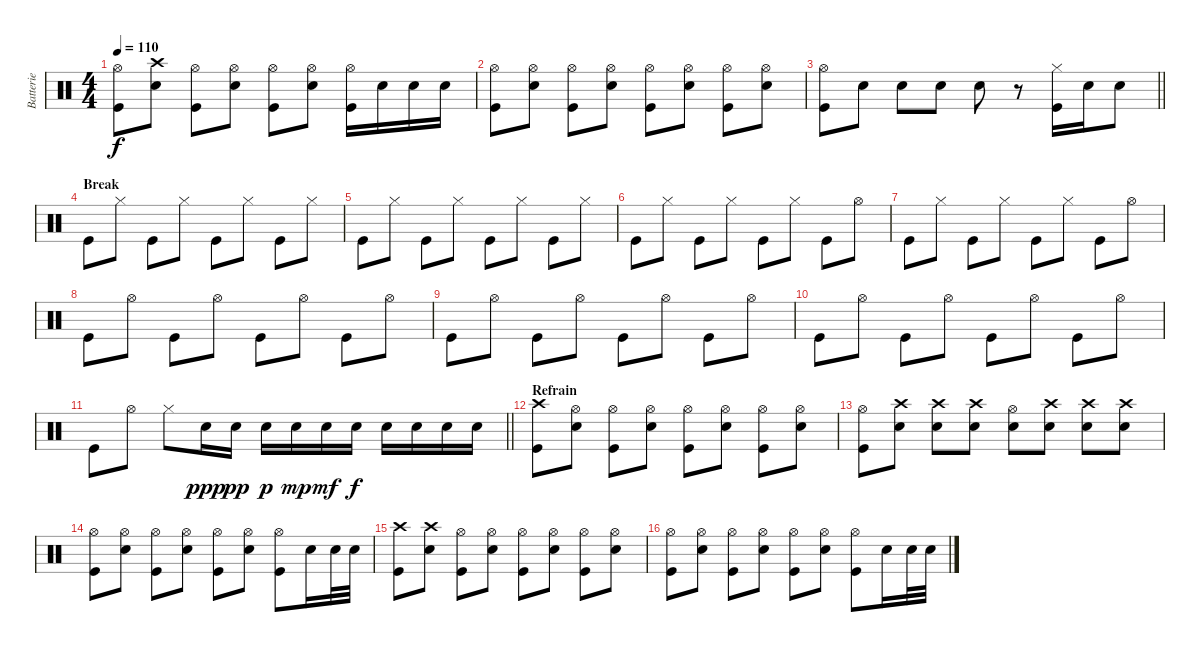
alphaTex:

\track ("Batterie" "Batterie") {instrument percussion}
\staff {score}
\articulation defaults
\ts (4 4)
\tempo 110
\clef neutral
\ks c
("Kick (hit)" "Hi-Hat (open)").8{dy f} ("Snare (hit) 2" "Crash high (hit)").8 ("Kick (hit)" "Hi-Hat (open)").8 ("Snare (hit) 2" "Hi-Hat (open)").8 ("Kick (hit)" "Hi-Hat (open)").8 ("Snare (hit) 2" "Hi-Hat (open)").8 ("Kick (hit)" "Hi-Hat (open)").16 "Snare (hit) 2".16 "Snare (hit) 2".16 "Snare (hit) 2".16 |
("Kick (hit)" "Hi-Hat (open)").8 ("Snare (hit) 2" "Hi-Hat (open)").8 ("Kick (hit)" "Hi-Hat (open)").8 ("Snare (hit) 2" "Hi-Hat (open)").8 ("Kick (hit)" "Hi-Hat (open)").8 ("Snare (hit) 2" "Hi-Hat (open)").8 ("Kick (hit)" "Hi-Hat (open)").8 ("Snare (hit) 2" "Hi-Hat (open)").8 |
\barLineRight lightlight
("Kick (hit)" "Hi-Hat (open)").8 "Snare (hit) 2".8 "Snare (hit) 2".8 "Snare (hit) 2".8 "Snare (hit) 2".8 r.8 ("Kick (hit)" "Hi-Hat (closed)").16 "Snare (hit) 2".16 "Snare (hit) 2".8 |
\section ("" "Break")
"Kick (hit)".8 "Hi-Hat (closed)".8 "Kick (hit)".8 "Hi-Hat (closed)".8 "Kick (hit)".8 "Hi-Hat (closed)".8 "Kick (hit)".8 "Hi-Hat (closed)".8 |
"Kick (hit)".8 "Hi-Hat (closed)".8 "Kick (hit)".8 "Hi-Hat (closed)".8 "Kick (hit)".8 "Hi-Hat (closed)".8 "Kick (hit)".8 "Hi-Hat (closed)".8 |
"Kick (hit)".8 "Hi-Hat (closed)".8 "Kick (hit)".8 "Hi-Hat (closed)".8 "Kick (hit)".8 "Hi-Hat (closed)".8 "Kick (hit)".8 "Hi-Hat (open)".8 |
"Kick (hit)".8 "Hi-Hat (closed)".8 "Kick (hit)".8 "Hi-Hat (closed)".8 "Kick (hit)".8 "Hi-Hat (closed)".8 "Kick (hit)".8 "Hi-Hat (open)".8 |
"Kick (hit)".8 "Hi-Hat (open)".8 "Kick (hit)".8 "Hi-Hat (open)".8 "Kick (hit)".8 "Hi-Hat (open)".8 "Kick (hit)".8 "Hi-Hat (open)".8 |
"Kick (hit)".8 "Hi-Hat (open)".8 "Kick (hit)".8 "Hi-Hat (open)".8 "Kick (hit)".8 "Hi-Hat (open)".8 "Kick (hit)".8 "Hi-Hat (open)".8 |
"Kick (hit)".8 "Hi-Hat (open)".8 "Kick (hit)".8 "Hi-Hat (open)".8 "Kick (hit)".8 "Hi-Hat (open)".8 "Kick (hit)".8 "Hi-Hat (open)".8 |
\barLineRight lightlight "Kick (hit)".8 "Hi-Hat (open)".8 "Hi-Hat (closed)".8 "Snare (hit) 2".16{dy ppp} "Snare (hit) 2".16{dy pp} "Snare (hit) 2".16{dy p} "Snare (hit) 2".16{dy mp} "Snare (hit) 2".16{dy mf} "Snare (hit) 2".16{dy f} "Snare (hit) 2".16 "Snare (hit) 2".16 "Snare (hit) 2".16 "Snare (hit) 2".16
|
\section ("" "Refrain")
("Kick (hit)" "Crash high (hit)").8 ("Snare (hit) 2" "Hi-Hat (open)").8 ("Kick (hit)" "Hi-Hat (open)").8 ("Snare (hit) 2" "Hi-Hat (open)").8 ("Kick (hit)" "Hi-Hat (open)").8 ("Snare (hit) 2" "Hi-Hat (open)").8 ("Kick (hit)" "Hi-Hat (open)").8 ("Snare (hit) 2" "Hi-Hat (open)").8 |
("Kick (hit)" "Hi-Hat (open)").8 ("Crash high (hit)" "Snare (hit) 2").8 ("Crash high (hit)" "Snare (hit) 2").8 ("Crash high (hit)" "Snare (hit) 2").8 ("Snare (hit) 2" "Hi-Hat (open)").8 ("Crash high (hit)" "Snare (hit) 2").8 ("Crash high (hit)" "Snare (hit) 2").8 ("Crash high (hit)" "Snare (hit) 2").8 |
("Kick (hit)" "Hi-Hat (open)").8 ("Snare (hit) 2" "Hi-Hat (open)").8 ("Kick (hit)" "Hi-Hat (open)").8 ("Snare (hit) 2" "Hi-Hat (open)").8 ("Kick (hit)" "Hi-Hat (open)").8 ("Snare (hit) 2" "Hi-Hat (open)").8 ("Kick (hit)" "Hi-Hat (open)").8 "Snare (hit) 2".16 "Snare (hit) 2".32 "Snare (hit) 2".32 |
("Kick (hit)" "Crash high (hit)").8 ("Snare (hit) 2" "Crash high (hit)").8 ("Kick (hit)" "Hi-Hat (open)").8 ("Snare (hit) 2" "Hi-Hat (open)").8 ("Kick (hit)" "Hi-Hat (open)").8 ("Snare (hit) 2" "Hi-Hat (open)").8 ("Kick (hit)" "Hi-Hat (open)").8 ("Snare (hit) 2" "Hi-Hat (open)").8 |
("Kick (hit)" "Hi-Hat (open)").8 ("Snare (hit) 2" "Hi-Hat (open)").8 ("Kick (hit)" "Hi-Hat (open)").8 ("Snare (hit) 2" "Hi-Hat (open)").8 ("Kick (hit)" "Hi-Hat (open)").8 ("Snare (hit) 2" "Hi-Hat (open)").8 ("Kick (hit)" "Hi-Hat (open)").8 "Snare (hit) 2".16 "Snare (hit) 2".32 "Snare (hit) 2".32
